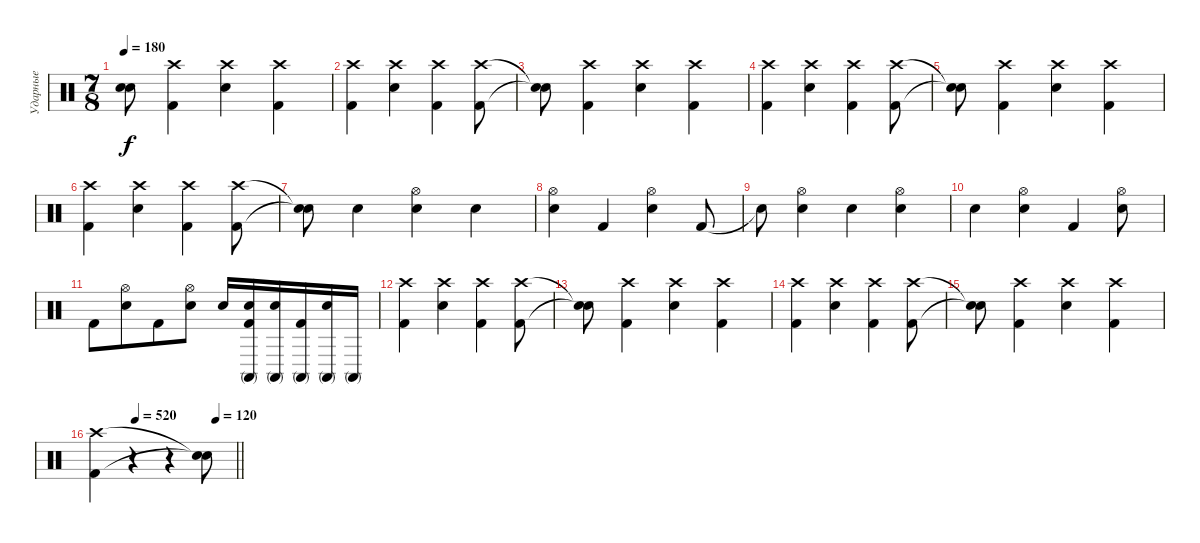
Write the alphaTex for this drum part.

\track ("Ударные" "Ударные") {instrument percussion}
\staff {score}
\articulation defaults
\ts (7 8)
\tempo 180
\clef neutral
\ks c
("Snare (hit)"{t} "Snare (hit)"{t}).8{dy f} ("Crash high (hit)" "Kick (hit) 2").4 ("Crash high (hit)" "Snare (hit) 2").4 ("Crash high (hit)" "Kick (hit) 2").4 |
("Crash high (hit)" "Kick (hit) 2").4 ("Crash high (hit)" "Snare (hit) 2").4 ("Crash high (hit)" "Kick (hit) 2").4 ("Crash high (hit)" "Kick (hit) 2").8 |
("Snare (hit)"{t} "Snare (hit)"{t}).8 ("Crash high (hit)" "Kick (hit) 2").4 ("Crash high (hit)" "Snare (hit) 2").4 ("Crash high (hit)" "Kick (hit) 2").4 |
("Crash high (hit)" "Kick (hit) 2").4 ("Crash high (hit)" "Snare (hit) 2").4 ("Crash high (hit)" "Kick (hit) 2").4 ("Crash high (hit)" "Kick (hit) 2").8 |
("Snare (hit)"{t} "Snare (hit)"{t}).8 ("Crash high (hit)" "Kick (hit) 2").4 ("Crash high (hit)" "Snare (hit) 2").4 ("Crash high (hit)" "Kick (hit) 2").4 |
("Crash high (hit)" "Kick (hit) 2").4 ("Crash high (hit)" "Snare (hit) 2").4 ("Crash high (hit)" "Kick (hit) 2").4 ("Crash high (hit)" "Kick (hit) 2").8 |
("Snare (hit)"{t} "Snare (hit)"{t}).8 "Electric Snare (hit)".4 ("Hi-Hat (open)" "Snare (hit) 2").4 "Electric Snare (hit)".4 |
("Hi-Hat (open)" "Snare (hit) 2").4 "Kick (hit) 2".4 ("Hi-Hat (open)" "Snare (hit) 2").4 "Kick (hit) 2".8 |
"Snare (hit)"{t}.8 ("Hi-Hat (open)" "Snare (hit) 2").4 "Electric Snare (hit)".4 ("Hi-Hat (open)" "Snare (hit) 2").4 |
"Electric Snare (hit)".4 ("Hi-Hat (open)" "Snare (hit) 2").4 "Kick (hit) 2".4 ("Hi-Hat (open)" "Snare (hit) 2").8 |
"Kick (hit) 2".8 ("Hi-Hat (open)" "Snare (hit) 2").8 "Kick (hit) 2".8 ("Hi-Hat (open)" "Snare (hit) 2").8 "Electric Snare (hit)".16 ("Electric Snare (hit)" "Conga high (mute)" "Kick (hit) 2").16 ("Electric Snare (hit)" "Conga high (mute)").16 ("Conga high (mute)" "Kick (hit) 2").16 ("Electric Snare (hit)" "Conga high (mute)").16 "Conga high (mute)".16 |
("Crash high (hit)" "Kick (hit) 2").4 ("Crash high (hit)" "Snare (hit) 2").4 ("Crash high (hit)" "Kick (hit) 2").4 ("Crash high (hit)" "Kick (hit) 2").8 |
("Snare (hit)"{t} "Snare (hit)"{t}).8 ("Crash high (hit)" "Kick (hit) 2").4 ("Crash high (hit)" "Snare (hit) 2").4 ("Crash high (hit)" "Kick (hit) 2").4 |
("Crash high (hit)" "Kick (hit) 2").4 ("Crash high (hit)" "Snare (hit) 2").4 ("Crash high (hit)" "Kick (hit) 2").4 ("Crash high (hit)" "Kick (hit) 2").8 |
("Snare (hit)"{t} "Snare (hit)"{t}).8 ("Crash high (hit)" "Kick (hit) 2").4 ("Crash high (hit)" "Snare (hit) 2").4 ("Crash high (hit)" "Kick (hit) 2").4 |
\tempo (520 0.2857142857142857)
\tempo (120 0.8571428571428571)
\barLineRight lightlight
("Crash high (hit)" "Kick (hit) 2").4 r.4 r.4 ("Snare (hit)"{t} "Snare (hit)"{t}).8
